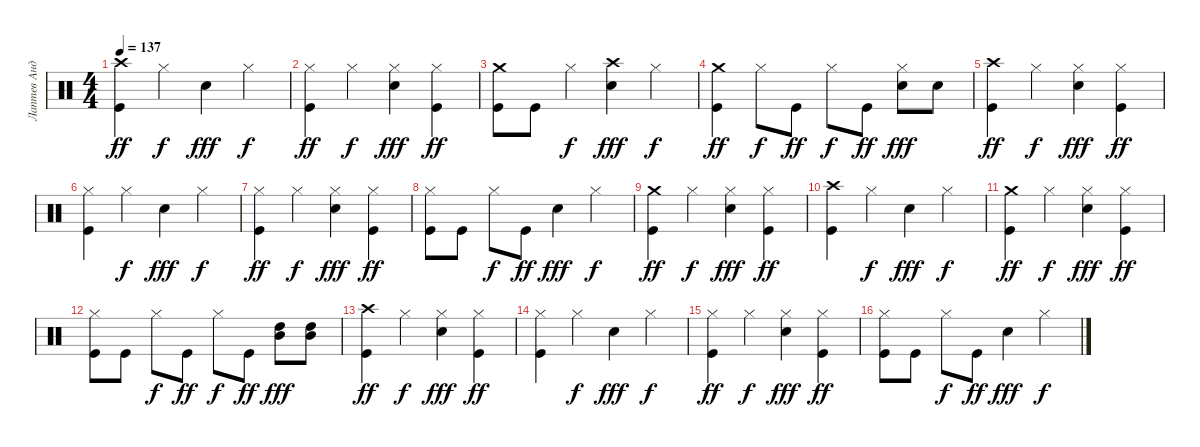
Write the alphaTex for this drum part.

\track ("Лаптев Андрей" "Лаптев Анд") {instrument percussion}
\staff {score}
\articulation defaults
\ts (4 4)
\tempo 137
\clef neutral
\ks c
("Kick (hit)" "Crash high (hit)").4{dy ff} "Hi-Hat (closed)".4{dy f} "Snare (hit) 2".4{dy fff} "Hi-Hat (closed)".4{dy f} |
("Kick (hit)" "Hi-Hat (closed)").4{dy ff} "Hi-Hat (closed)".4{dy f} ("Snare (hit) 2" "Hi-Hat (closed)").4{dy fff} ("Kick (hit)" "Hi-Hat (closed)").4{dy ff} |
("Kick (hit)" "Crash medium (hit)").8 "Kick (hit)".8 "Hi-Hat (closed)".4{dy f} ("Crash high (hit)" "Snare (hit) 2").4{dy fff} "Hi-Hat (closed)".4{dy f} |
("Crash medium (hit)" "Kick (hit)").4{dy ff} "Hi-Hat (closed)".8{dy f} "Kick (hit)".8{dy ff} "Hi-Hat (closed)".8{dy f} "Kick (hit)".8{dy ff} ("Snare (hit) 2" "Hi-Hat (closed)").8{dy fff} "Snare (hit) 2".8 |
("Crash high (hit)" "Kick (hit)").4{dy ff} "Hi-Hat (closed)".4{dy f} ("Snare (hit) 2" "Hi-Hat (closed)").4{dy fff} ("Kick (hit)" "Hi-Hat (closed)").4{dy ff} |
("Kick (hit)" "Hi-Hat (closed)").4 "Hi-Hat (closed)".4{dy f} "Snare (hit) 2".4{dy fff} "Hi-Hat (closed)".4{dy f} |
("Hi-Hat (closed)" "Kick (hit)").4{dy ff} "Hi-Hat (closed)".4{dy f} ("Snare (hit) 2" "Hi-Hat (closed)").4{dy fff} ("Kick (hit)" "Hi-Hat (closed)").4{dy ff} |
("Kick (hit)" "Hi-Hat (closed)").8 "Kick (hit)".8 "Hi-Hat (closed)".8{dy f} "Kick (hit)".8{dy ff} "Snare (hit) 2".4{dy fff} "Hi-Hat (closed)".4{dy f} |
("Crash medium (hit)" "Kick (hit)").4{dy ff} "Hi-Hat (closed)".4{dy f} ("Snare (hit) 2" "Hi-Hat (closed)").4{dy fff} ("Kick (hit)" "Hi-Hat (closed)").4{dy ff} |
("Kick (hit)" "Crash high (hit)").4 "Hi-Hat (closed)".4{dy f} "Snare (hit) 2".4{dy fff} "Hi-Hat (closed)".4{dy f} |
("Crash medium (hit)" "Kick (hit)").4{dy ff} "Hi-Hat (closed)".4{dy f} ("Snare (hit) 2" "Hi-Hat (closed)").4{dy fff} ("Kick (hit)" "Hi-Hat (closed)").4{dy ff} |
("Kick (hit)" "Hi-Hat (closed)").8 "Kick (hit)".8 "Hi-Hat (closed)".8{dy f} "Kick (hit)".8{dy ff} "Hi-Hat (closed)".8{dy f} "Kick (hit)".8{dy ff} ("High Tom (hit)" "Mid Tom (hit)").8{dy fff} ("High Tom (hit)" "Mid Tom (hit)").8 |
("Kick (hit)" "Crash high (hit)").4{dy ff} "Hi-Hat (closed)".4{dy f} ("Snare (hit) 2" "Hi-Hat (closed)").4{dy fff} ("Kick (hit)" "Hi-Hat (closed)").4{dy ff} |
("Kick (hit)" "Hi-Hat (closed)").4 "Hi-Hat (closed)".4{dy f} "Snare (hit) 2".4{dy fff} "Hi-Hat (closed)".4{dy f} |
("Kick (hit)" "Hi-Hat (closed)").4{dy ff} "Hi-Hat (closed)".4{dy f} ("Snare (hit) 2" "Hi-Hat (closed)").4{dy fff} ("Kick (hit)" "Hi-Hat (closed)").4{dy ff} |
("Kick (hit)" "Hi-Hat (closed)").8 "Kick (hit)".8 "Hi-Hat (closed)".8{dy f} "Kick (hit)".8{dy ff} "Snare (hit) 2".4{dy fff} "Hi-Hat (closed)".4{dy f}
